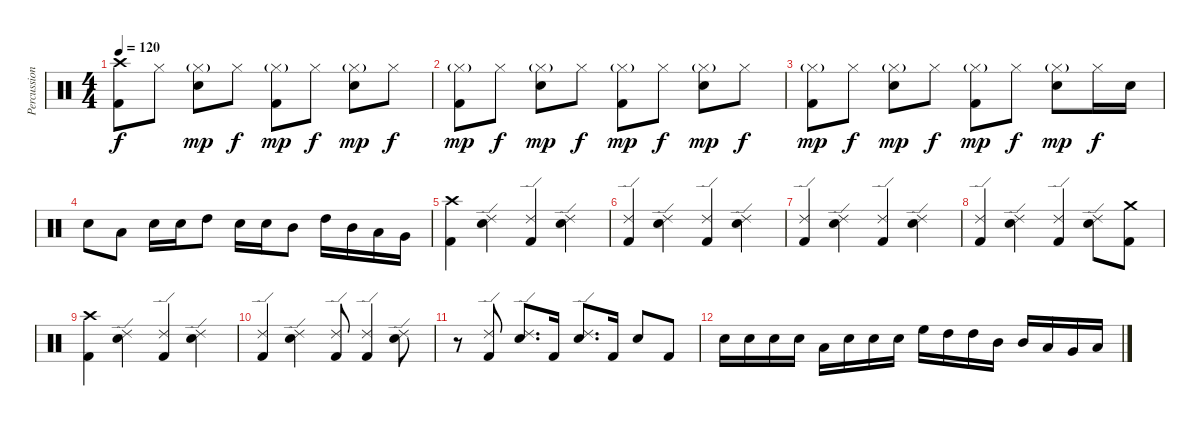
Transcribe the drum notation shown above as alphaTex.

\track ("Percussion" "Percussion") {instrument percussion}
\staff {score}
\articulation defaults
\ts (4 4)
\tempo 120
\clef neutral
\ks c
("Crash high (hit)" "Kick (hit) 2").8{dy f} "Hi-Hat (closed)".8 ("Hi-Hat (closed)"{g} "Electric Snare (hit)").8{dy mp} "Hi-Hat (closed)".8{dy f} ("Hi-Hat (closed)"{g} "Kick (hit) 2").8{dy mp} "Hi-Hat (closed)".8{dy f} ("Hi-Hat (closed)"{g} "Electric Snare (hit)").8{dy mp} "Hi-Hat (closed)".8{dy f} |
("Hi-Hat (closed)"{g} "Kick (hit) 2").8{dy mp} "Hi-Hat (closed)".8{dy f} ("Hi-Hat (closed)"{g} "Electric Snare (hit)").8{dy mp} "Hi-Hat (closed)".8{dy f} ("Hi-Hat (closed)"{g} "Kick (hit) 2").8{dy mp} "Hi-Hat (closed)".8{dy f} ("Hi-Hat (closed)"{g} "Electric Snare (hit)").8{dy mp} "Hi-Hat (closed)".8{dy f} |
("Hi-Hat (closed)"{g} "Kick (hit) 2").8{dy mp} "Hi-Hat (closed)".8{dy f} ("Hi-Hat (closed)"{g} "Electric Snare (hit)").8{dy mp} "Hi-Hat (closed)".8{dy f} ("Hi-Hat (closed)"{g} "Kick (hit) 2").8{dy mp} "Hi-Hat (closed)".8{dy f} ("Hi-Hat (closed)"{g} "Electric Snare (hit)").8{dy mp} "Hi-Hat (closed)".16{dy f} "Electric Snare (hit)".16 |
"Electric Snare (hit)".8 "Low Tom (hit)".8 "Electric Snare (hit)".16 "Electric Snare (hit)".16 "High Tom (hit)".8 "Electric Snare (hit)".16 "Electric Snare (hit)".16 "Mid Tom (hit)".8 "High Tom (hit)".16 "Mid Tom (hit)".16 "Low Tom (hit)".16 "Very Low Tom (hit)".16 |
("Crash high (hit)" "Kick (hit) 2").4 ("Ride (edge) 2" "Electric Snare (hit)").4 ("Ride (edge) 2" "Kick (hit) 2").4 ("Ride (edge) 2" "Electric Snare (hit)").4 |
("Ride (edge) 2" "Kick (hit) 2").4 ("Ride (edge) 2" "Electric Snare (hit)").4 ("Ride (edge) 2" "Kick (hit) 2").4 ("Ride (edge) 2" "Electric Snare (hit)").4 |
("Ride (edge) 2" "Kick (hit) 2").4 ("Ride (edge) 2" "Electric Snare (hit)").4 ("Ride (edge) 2" "Kick (hit) 2").4 ("Ride (edge) 2" "Electric Snare (hit)").4 |
("Ride (edge) 2" "Kick (hit) 2").4 ("Ride (edge) 2" "Electric Snare (hit)").4 ("Ride (edge) 2" "Kick (hit) 2").4 ("Ride (edge) 2" "Electric Snare (hit)").8 ("Crash medium (hit)" "Kick (hit) 2").8 |
("Crash high (hit)" "Kick (hit) 2").4 ("Ride (edge) 2" "Electric Snare (hit)").4 ("Ride (edge) 2" "Kick (hit) 2").4 ("Ride (edge) 2" "Electric Snare (hit)").4 |
("Ride (edge) 2" "Kick (hit) 2").4 ("Ride (edge) 2" "Electric Snare (hit)").4 ("Ride (edge) 2" "Kick (hit) 2").8 ("Ride (edge) 2" "Kick (hit) 2").4 ("Ride (edge) 2" "Electric Snare (hit)").8 |
r.8 ("Ride (edge) 2" "Kick (hit) 2").8 ("Ride (edge) 2" "Electric Snare (hit)").8{d} "Kick (hit) 2".16 ("Ride (edge) 2" "Electric Snare (hit)").8{d} "Kick (hit) 2".16 "Electric Snare (hit)".8 "Kick (hit) 2".8 |
"Electric Snare (hit)".16 "Electric Snare (hit)".16 "Electric Snare (hit)".16 "Electric Snare (hit)".16 "Low Tom (hit)".16 "Electric Snare (hit)".16 "Electric Snare (hit)".16 "Electric Snare (hit)".16 "High Floor Tom (hit)".16 "High Tom (hit)".16 "High Tom (hit)".16 "Mid Tom (hit)".16 "Mid Tom (hit)".16 "Low Tom (hit)".16 "Very Low Tom (hit)".16 "Low Floor Tom (hit)".16
